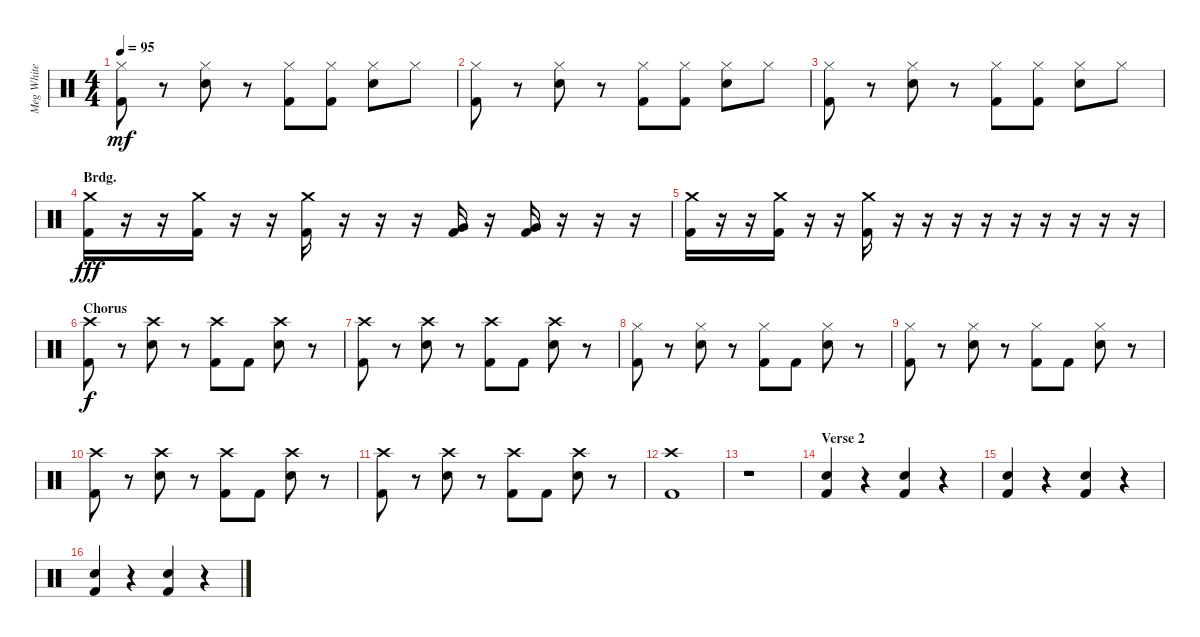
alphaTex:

\track ("Meg White - Drums" "Meg White ") {instrument percussion}
\staff {score}
\articulation defaults
\ts (4 4)
\tempo 95
\clef neutral
\ks c
("Hi-Hat (closed)" "Kick (hit) 2").8{dy mf} r.8 ("Hi-Hat (closed)" "Electric Snare (hit)").8 r.8 ("Hi-Hat (closed)" "Kick (hit) 2").8 ("Hi-Hat (closed)" "Kick (hit) 2").8 ("Hi-Hat (closed)" "Electric Snare (hit)").8 "Hi-Hat (closed)".8 |
("Hi-Hat (closed)" "Kick (hit) 2").8 r.8 ("Hi-Hat (closed)" "Electric Snare (hit)").8 r.8 ("Hi-Hat (closed)" "Kick (hit) 2").8 ("Hi-Hat (closed)" "Kick (hit) 2").8 ("Hi-Hat (closed)" "Electric Snare (hit)").8 "Hi-Hat (closed)".8 |
("Hi-Hat (closed)" "Kick (hit) 2").8 r.8 ("Hi-Hat (closed)" "Electric Snare (hit)").8 r.8 ("Hi-Hat (closed)" "Kick (hit) 2").8 ("Hi-Hat (closed)" "Kick (hit) 2").8 ("Hi-Hat (closed)" "Electric Snare (hit)").8 "Hi-Hat (closed)".8 |
\section ("" "Brdg.")
("Crash medium (hit)" "Kick (hit) 2").16{dy fff} r.16 r.16 ("Crash medium (hit)" "Kick (hit) 2").16 r.16 r.16 ("Crash medium (hit)" "Kick (hit) 2").16 r.16 r.16 r.16 ("Very Low Tom (hit)" "Kick (hit) 2").16 r.16 ("Very Low Tom (hit)" "Kick (hit) 2").16 r.16 r.16 r.16 |
("Crash medium (hit)" "Kick (hit) 2").16 r.16 r.16 ("Crash medium (hit)" "Kick (hit) 2").16 r.16 r.16 ("Crash medium (hit)" "Kick (hit) 2").16 r.16 r.16 r.16 r.16 r.16 r.16 r.16 r.16 r.16 |
\section ("" "Chorus")
("Crash high (hit)" "Kick (hit) 2").8{dy f} r.8 ("Crash high (hit)" "Electric Snare (hit)").8 r.8 ("Crash high (hit)" "Kick (hit) 2").8 "Kick (hit) 2".8 ("Crash high (hit)" "Electric Snare (hit)").8 r.8 |
("Crash high (hit)" "Kick (hit) 2").8 r.8 ("Crash high (hit)" "Electric Snare (hit)").8 r.8 ("Crash high (hit)" "Kick (hit) 2").8 "Kick (hit) 2".8 ("Crash high (hit)" "Electric Snare (hit)").8 r.8 |
("Hi-Hat (closed)" "Kick (hit) 2").8 r.8 ("Hi-Hat (closed)" "Electric Snare (hit)").8 r.8 ("Hi-Hat (closed)" "Kick (hit) 2").8 "Kick (hit) 2".8 ("Hi-Hat (closed)" "Electric Snare (hit)").8 r.8 |
("Hi-Hat (closed)" "Kick (hit) 2").8 r.8 ("Hi-Hat (closed)" "Electric Snare (hit)").8 r.8 ("Hi-Hat (closed)" "Kick (hit) 2").8 "Kick (hit) 2".8 ("Hi-Hat (closed)" "Electric Snare (hit)").8 r.8 |
("Crash high (hit)" "Kick (hit) 2").8 r.8 ("Crash high (hit)" "Electric Snare (hit)").8 r.8 ("Crash high (hit)" "Kick (hit) 2").8 "Kick (hit) 2".8 ("Crash high (hit)" "Electric Snare (hit)").8 r.8 |
("Crash high (hit)" "Kick (hit) 2").8 r.8 ("Crash high (hit)" "Electric Snare (hit)").8 r.8 ("Crash high (hit)" "Kick (hit) 2").8 "Kick (hit) 2".8 ("Crash high (hit)" "Electric Snare (hit)").8 r.8 |
("Crash high (hit)" "Kick (hit) 2").1 |
r.1 |
\section ("" "Verse 2")
("Electric Snare (hit)" "Kick (hit) 2").4 r.4 ("Electric Snare (hit)" "Kick (hit) 2").4 r.4 |
("Electric Snare (hit)" "Kick (hit) 2").4 r.4 ("Electric Snare (hit)" "Kick (hit) 2").4 r.4 |
("Electric Snare (hit)" "Kick (hit) 2").4 r.4 ("Electric Snare (hit)" "Kick (hit) 2").4 r.4
